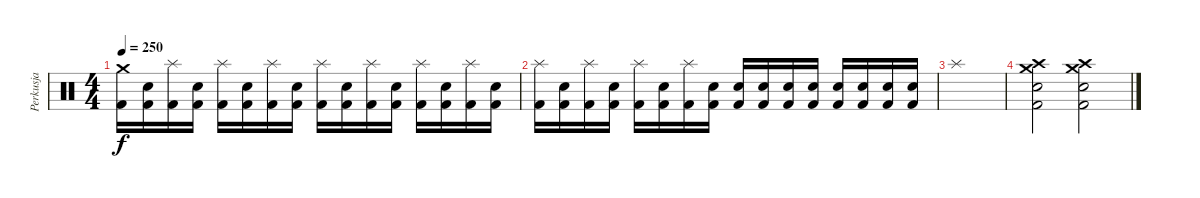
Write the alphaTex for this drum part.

\track ("Perkusja" "Perkusja") {instrument percussion}
\staff {score}
\articulation defaults
\ts (4 4)
\tempo 250
\clef neutral
\ks c
("Crash medium (hit)" "Kick (hit) 2").16{dy f} ("Snare (hit) 2" "Kick (hit) 2").16 ("Splash (hit)" "Kick (hit) 2").16 ("Snare (hit) 2" "Kick (hit) 2").16 ("Splash (hit)" "Kick (hit) 2").16 ("Snare (hit) 2" "Kick (hit) 2").16 ("Splash (hit)" "Kick (hit) 2").16 ("Snare (hit) 2" "Kick (hit) 2").16 ("Splash (hit)" "Kick (hit) 2").16 ("Snare (hit) 2" "Kick (hit) 2").16 ("Splash (hit)" "Kick (hit) 2").16 ("Snare (hit) 2" "Kick (hit) 2").16 ("Splash (hit)" "Kick (hit) 2").16 ("Snare (hit) 2" "Kick (hit) 2").16 ("Splash (hit)" "Kick (hit) 2").16 ("Snare (hit) 2" "Kick (hit) 2").16 |
("Splash (hit)" "Kick (hit) 2").16 ("Snare (hit) 2" "Kick (hit) 2").16 ("Splash (hit)" "Kick (hit) 2").16 ("Snare (hit) 2" "Kick (hit) 2").16 ("Splash (hit)" "Kick (hit) 2").16 ("Snare (hit) 2" "Kick (hit) 2").16 ("Splash (hit)" "Kick (hit) 2").16 ("Snare (hit) 2" "Kick (hit) 2").16 ("Snare (hit) 2" "Kick (hit) 2").16 ("Snare (hit) 2" "Kick (hit) 2").16 ("Snare (hit) 2" "Kick (hit) 2").16 ("Snare (hit) 2" "Kick (hit) 2").16 ("Electric Snare (hit)" "Kick (hit) 2").16 ("Electric Snare (hit)" "Kick (hit) 2").16 ("Electric Snare (hit)" "Kick (hit) 2").16 ("Electric Snare (hit)" "Kick (hit) 2").16 |
"Splash (hit)".1 |
("Crash high (hit)" "Crash medium (hit)" "Snare (hit) 2" "Kick (hit) 2").2 ("Crash high (hit)" "Crash medium (hit)" "Snare (hit) 2" "Kick (hit) 2").2
